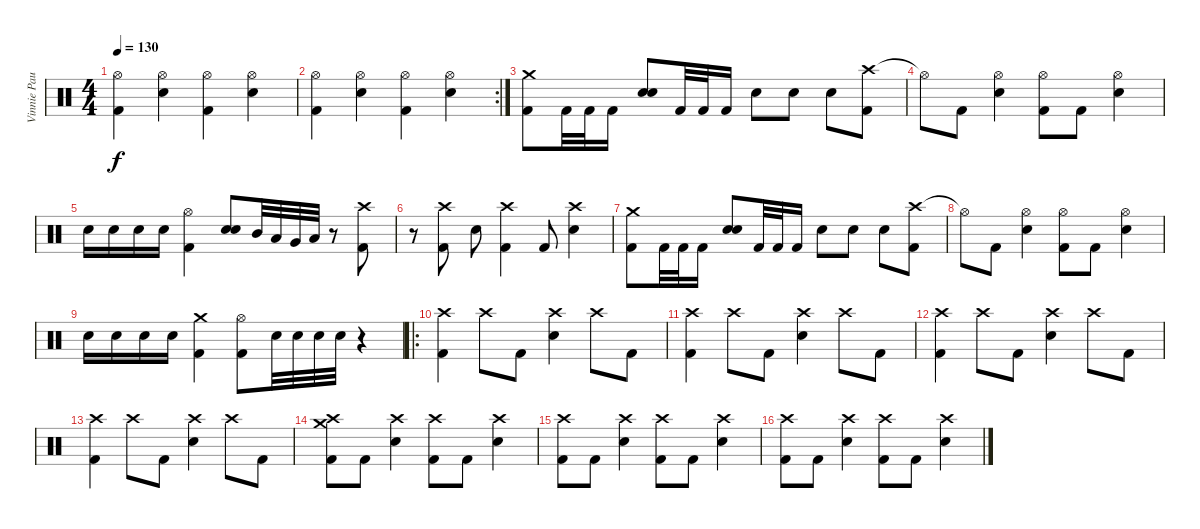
\track ("Vinnie Paul" "Vinnie Pau") {instrument percussion}
\staff {score}
\articulation defaults
\ts (4 4)
\tempo 130
\clef neutral
\ks c
("Hi-Hat (open)" "Kick (hit) 2").4{dy f} ("Hi-Hat (open)" "Snare (hit) 2").4 ("Hi-Hat (open)" "Kick (hit) 2").4 ("Hi-Hat (open)" "Snare (hit) 2").4 |
\rc 2
("Hi-Hat (open)" "Kick (hit) 2").4 ("Hi-Hat (open)" "Snare (hit) 2").4 ("Hi-Hat (open)" "Kick (hit) 2").4 ("Hi-Hat (open)" "Snare (hit) 2").4 |
("Crash medium (hit)" "Kick (hit) 2").8 "Kick (hit) 2".32 "Kick (hit) 2".32 "Kick (hit) 2".16 ("Snare (hit) 2" "Snare (hit) 2").8{bd 120} "Kick (hit) 2".32 "Kick (hit) 2".32 "Kick (hit) 2".16 "Snare (hit) 2".8 "Snare (hit) 2".8 "Snare (hit) 2".8 ("Crash high (hit)" "Kick (hit) 2").8 |
"Hi-Hat (open)"{t}.8 "Kick (hit) 2".8 ("Hi-Hat (open)" "Snare (hit) 2").4 ("Hi-Hat (open)" "Kick (hit) 2").8 "Kick (hit) 2".8 ("Hi-Hat (open)" "Snare (hit) 2").4 |
"Snare (hit) 2".16 "Snare (hit) 2".16 "Snare (hit) 2".16 "Snare (hit) 2".16 ("Hi-Hat (open)" "Kick (hit) 2").4 ("Snare (hit) 2" "Snare (hit) 2").8{bd 120} "Mid Tom (hit)".32 "Low Tom (hit)".32 "Very Low Tom (hit)".32 "Low Floor Tom (hit)".32 r.8 ("Crash high (hit)" "Kick (hit) 2").8 |
r.8 ("Crash high (hit)" "Kick (hit) 2").8 "Snare (hit) 2".8 ("Crash high (hit)" "Kick (hit) 2").4 "Kick (hit) 2".8 ("Crash high (hit)" "Snare (hit) 2").4 |
("Crash medium (hit)" "Kick (hit) 2").8 "Kick (hit) 2".32 "Kick (hit) 2".32 "Kick (hit) 2".16 ("Snare (hit) 2" "Snare (hit) 2").8{bd 120} "Kick (hit) 2".32 "Kick (hit) 2".32 "Kick (hit) 2".16 "Snare (hit) 2".8 "Snare (hit) 2".8 "Snare (hit) 2".8 ("Crash high (hit)" "Kick (hit) 2").8 |
"Hi-Hat (open)"{t}.8 "Kick (hit) 2".8 ("Hi-Hat (open)" "Snare (hit) 2").4 ("Hi-Hat (open)" "Kick (hit) 2").8 "Kick (hit) 2".8 ("Hi-Hat (open)" "Snare (hit) 2").4 |
"Snare (hit) 2".16 "Snare (hit) 2".16 "Snare (hit) 2".16 "Snare (hit) 2".16 ("Crash medium (hit)" "Kick (hit) 2").4 ("Hi-Hat (open)" "Kick (hit) 2").8{bd 120} "Snare (hit) 2".32 "Snare (hit) 2".32 "Snare (hit) 2".32 "Snare (hit) 2".32 r.4 |
\ro
("Crash high (hit)" "Kick (hit) 2").4 "Crash high (hit)".8 "Kick (hit) 2".8 ("Crash high (hit)" "Snare (hit) 2").4 "Crash high (hit)".8 "Kick (hit) 2".8 |
("Crash high (hit)" "Kick (hit) 2").4 "Crash high (hit)".8 "Kick (hit) 2".8 ("Crash high (hit)" "Snare (hit) 2").4 "Crash high (hit)".8 "Kick (hit) 2".8 |
("Crash high (hit)" "Kick (hit) 2").4 "Crash high (hit)".8 "Kick (hit) 2".8 ("Crash high (hit)" "Snare (hit) 2").4 "Crash high (hit)".8 "Kick (hit) 2".8 |
("Crash high (hit)" "Kick (hit) 2").4 "Crash high (hit)".8 "Kick (hit) 2".8 ("Crash high (hit)" "Snare (hit) 2").4 "Crash high (hit)".8 "Kick (hit) 2".8 |
("Crash high (hit)" "Crash medium (hit)" "Kick (hit) 2").8 "Kick (hit) 2".8 ("Crash high (hit)" "Snare (hit) 2").4 ("Crash high (hit)" "Kick (hit) 2").8 "Kick (hit) 2".8 ("Crash high (hit)" "Snare (hit) 2").4 |
("Crash high (hit)" "Kick (hit) 2").8 "Kick (hit) 2".8 ("Crash high (hit)" "Snare (hit) 2").4 ("Crash high (hit)" "Kick (hit) 2").8 "Kick (hit) 2".8 ("Crash high (hit)" "Snare (hit) 2").4 |
("Crash high (hit)" "Kick (hit) 2").8 "Kick (hit) 2".8 ("Crash high (hit)" "Snare (hit) 2").4 ("Crash high (hit)" "Kick (hit) 2").8 "Kick (hit) 2".8 ("Crash high (hit)" "Snare (hit) 2").4
